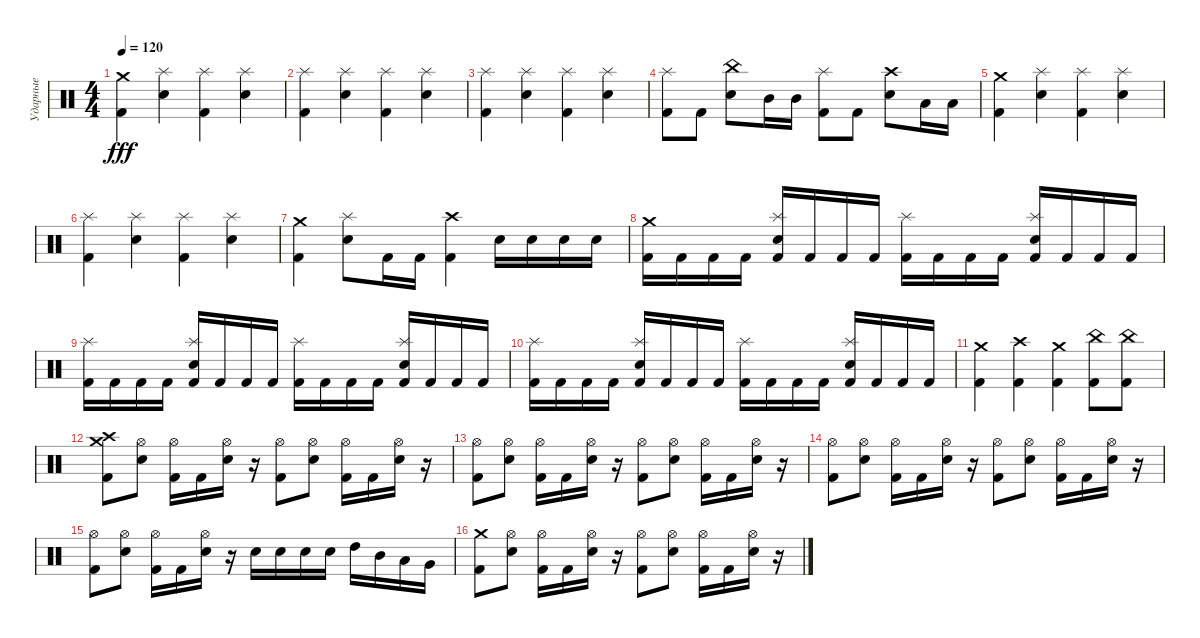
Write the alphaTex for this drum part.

\track ("Ударные" "Ударные") {instrument percussion}
\staff {score}
\articulation defaults
\ts (4 4)
\tempo 120
\clef neutral
\ks c
("Crash medium (hit)" "Kick (hit) 2").4{dy fff} ("Splash (hit)" "Electric Snare (hit)").4 ("Splash (hit)" "Kick (hit) 2").4 ("Splash (hit)" "Electric Snare (hit)").4 |
("Splash (hit)" "Kick (hit) 2").4 ("Splash (hit)" "Electric Snare (hit)").4 ("Splash (hit)" "Kick (hit) 2").4 ("Splash (hit)" "Electric Snare (hit)").4 |
("Splash (hit)" "Kick (hit) 2").4 ("Splash (hit)" "Electric Snare (hit)").4 ("Splash (hit)" "Kick (hit) 2").4 ("Splash (hit)" "Electric Snare (hit)").4 |
("Splash (hit)" "Kick (hit) 2").8 "Kick (hit) 2".8 ("China (hit)" "Electric Snare (hit)").8 "Mid Tom (hit)".16 "Mid Tom (hit)".16 ("Splash (hit)" "Kick (hit) 2").8 "Kick (hit) 2".8 ("Crash high (hit)" "Electric Snare (hit)").8 "Low Tom (hit)".16 "Low Tom (hit)".16 |
("Crash medium (hit)" "Kick (hit) 2").4 ("Splash (hit)" "Electric Snare (hit)").4 ("Splash (hit)" "Kick (hit) 2").4 ("Splash (hit)" "Electric Snare (hit)").4 |
("Splash (hit)" "Kick (hit) 2").4 ("Splash (hit)" "Electric Snare (hit)").4 ("Splash (hit)" "Kick (hit) 2").4 ("Splash (hit)" "Electric Snare (hit)").4 |
("Crash medium (hit)" "Kick (hit) 2").4 ("Splash (hit)" "Electric Snare (hit)").8 "Kick (hit) 2".16 "Kick (hit) 2".16 ("Crash high (hit)" "Kick (hit) 2").4 "Electric Snare (hit)".16 "Electric Snare (hit)".16 "Electric Snare (hit)".16 "Electric Snare (hit)".16 |
("Crash medium (hit)" "Kick (hit) 2").16 "Kick (hit) 2".16 "Kick (hit) 2".16 "Kick (hit) 2".16 ("Splash (hit)" "Electric Snare (hit)" "Kick (hit) 2").16 "Kick (hit) 2".16 "Kick (hit) 2".16 "Kick (hit) 2".16 ("Splash (hit)" "Kick (hit) 2").16 "Kick (hit) 2".16 "Kick (hit) 2".16 "Kick (hit) 2".16 ("Splash (hit)" "Electric Snare (hit)" "Kick (hit) 2").16 "Kick (hit) 2".16 "Kick (hit) 2".16 "Kick (hit) 2".16 |
("Splash (hit)" "Kick (hit) 2").16 "Kick (hit) 2".16 "Kick (hit) 2".16 "Kick (hit) 2".16 ("Splash (hit)" "Electric Snare (hit)" "Kick (hit) 2").16 "Kick (hit) 2".16 "Kick (hit) 2".16 "Kick (hit) 2".16 ("Splash (hit)" "Kick (hit) 2").16 "Kick (hit) 2".16 "Kick (hit) 2".16 "Kick (hit) 2".16 ("Splash (hit)" "Electric Snare (hit)" "Kick (hit) 2").16 "Kick (hit) 2".16 "Kick (hit) 2".16 "Kick (hit) 2".16 |
("Splash (hit)" "Kick (hit) 2").16 "Kick (hit) 2".16 "Kick (hit) 2".16 "Kick (hit) 2".16 ("Splash (hit)" "Electric Snare (hit)" "Kick (hit) 2").16 "Kick (hit) 2".16 "Kick (hit) 2".16 "Kick (hit) 2".16 ("Splash (hit)" "Kick (hit) 2").16 "Kick (hit) 2".16 "Kick (hit) 2".16 "Kick (hit) 2".16 ("Splash (hit)" "Electric Snare (hit)" "Kick (hit) 2").16 "Kick (hit) 2".16 "Kick (hit) 2".16 "Kick (hit) 2".16 |
("Crash medium (hit)" "Kick (hit) 2").4 ("Crash high (hit)" "Kick (hit) 2").4 ("Crash medium (hit)" "Kick (hit) 2").4 ("China (hit)" "Kick (hit) 2").8 ("China (hit)" "Kick (hit) 2").8 |
("Crash medium (hit)" "Kick (hit) 2" "Crash high (hit)").8 ("Hi-Hat (open)" "Electric Snare (hit)").8 ("Hi-Hat (open)" "Kick (hit) 2").16 "Kick (hit) 2".16 ("Hi-Hat (open)" "Electric Snare (hit)").16 r.16 ("Hi-Hat (open)" "Kick (hit) 2").8 ("Hi-Hat (open)" "Electric Snare (hit)").8 ("Hi-Hat (open)" "Kick (hit) 2").16 "Kick (hit) 2".16 ("Hi-Hat (open)" "Electric Snare (hit)").16 r.16 |
("Hi-Hat (open)" "Kick (hit) 2").8 ("Hi-Hat (open)" "Electric Snare (hit)").8 ("Hi-Hat (open)" "Kick (hit) 2").16 "Kick (hit) 2".16 ("Hi-Hat (open)" "Electric Snare (hit)").16 r.16 ("Hi-Hat (open)" "Kick (hit) 2").8 ("Hi-Hat (open)" "Electric Snare (hit)").8 ("Hi-Hat (open)" "Kick (hit) 2").16 "Kick (hit) 2".16 ("Hi-Hat (open)" "Electric Snare (hit)").16 r.16 |
("Hi-Hat (open)" "Kick (hit) 2").8 ("Hi-Hat (open)" "Electric Snare (hit)").8 ("Hi-Hat (open)" "Kick (hit) 2").16 "Kick (hit) 2".16 ("Hi-Hat (open)" "Electric Snare (hit)").16 r.16 ("Hi-Hat (open)" "Kick (hit) 2").8 ("Hi-Hat (open)" "Electric Snare (hit)").8 ("Hi-Hat (open)" "Kick (hit) 2").16 "Kick (hit) 2".16 ("Hi-Hat (open)" "Electric Snare (hit)").16 r.16 |
("Hi-Hat (open)" "Kick (hit) 2").8 ("Hi-Hat (open)" "Electric Snare (hit)").8 ("Hi-Hat (open)" "Kick (hit) 2").16 "Kick (hit) 2".16 ("Hi-Hat (open)" "Electric Snare (hit)").16 r.16 "Electric Snare (hit)".16 "Electric Snare (hit)".16 "Electric Snare (hit)".16 "Electric Snare (hit)".16 "High Tom (hit)".16 "Mid Tom (hit)".16 "Low Tom (hit)".16 "Very Low Tom (hit)".16 |
("Crash medium (hit)" "Kick (hit) 2").8 ("Hi-Hat (open)" "Electric Snare (hit)").8 ("Hi-Hat (open)" "Kick (hit) 2").16 "Kick (hit) 2".16 ("Hi-Hat (open)" "Electric Snare (hit)").16 r.16 ("Hi-Hat (open)" "Kick (hit) 2").8 ("Hi-Hat (open)" "Electric Snare (hit)").8 ("Hi-Hat (open)" "Kick (hit) 2").16 "Kick (hit) 2".16 ("Hi-Hat (open)" "Electric Snare (hit)").16 r.16
